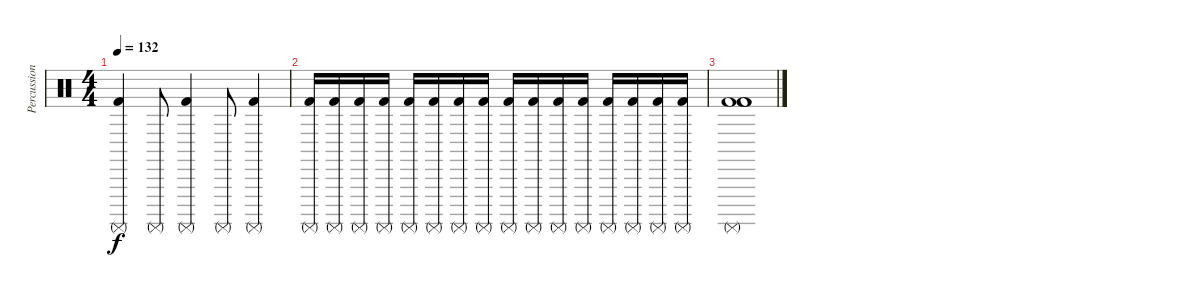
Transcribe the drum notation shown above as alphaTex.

\track ("Percussion" "Percussion") {instrument percussion}
\staff {score}
\articulation defaults
\ts (4 4)
\tempo 132
\clef neutral
\ks c
("Surdo (mute)" "Kick (hit) 2").4{dy f} "Surdo (mute)".8 ("Surdo (mute)" "Kick (hit) 2").4 "Surdo (mute)".8 ("Surdo (mute)" "Kick (hit) 2").4 |
("Surdo (mute)" "Kick (hit) 2").16 ("Surdo (mute)" "Kick (hit) 2").16 ("Surdo (mute)" "Kick (hit) 2").16 ("Surdo (mute)" "Kick (hit) 2").16 ("Surdo (mute)" "Kick (hit) 2").16 ("Surdo (mute)" "Kick (hit) 2").16 ("Surdo (mute)" "Kick (hit) 2").16 ("Surdo (mute)" "Kick (hit) 2").16 ("Surdo (mute)" "Kick (hit) 2").16 ("Surdo (mute)" "Kick (hit) 2").16 ("Surdo (mute)" "Kick (hit) 2").16 ("Surdo (mute)" "Kick (hit) 2").16 ("Surdo (mute)" "Kick (hit) 2").16 ("Surdo (mute)" "Kick (hit) 2").16 ("Surdo (mute)" "Kick (hit) 2").16 ("Surdo (mute)" "Kick (hit) 2").16 |
("Surdo (mute)" "Kick (hit) 2" "Kick (hit) 2" "Kick (hit) 2").1
